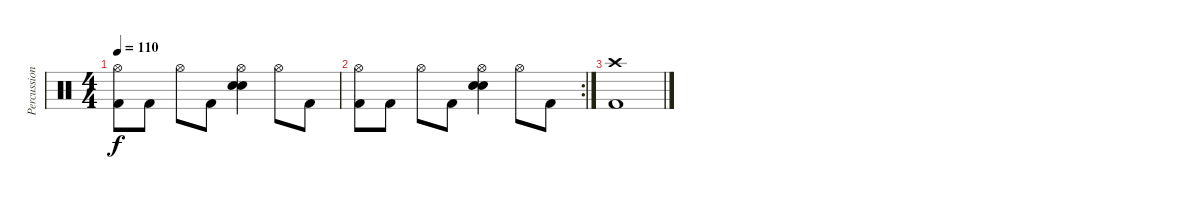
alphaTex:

\track ("Percussions" "Percussion") {instrument percussion}
\staff {score}
\articulation defaults
\ts (4 4)
\tempo 110
\clef neutral
\ks c
("Hi-Hat (open)" "Kick (hit) 2").8{dy f} "Kick (hit) 2".8 "Hi-Hat (open)".8 "Kick (hit) 2".8 ("Hand Clap (hit)" "Hi-Hat (open)" "Electric Snare (hit)").4 "Hi-Hat (open)".8 "Kick (hit) 2".8 |
\rc 2
("Hi-Hat (open)" "Kick (hit) 2").8 "Kick (hit) 2".8 "Hi-Hat (open)".8 "Kick (hit) 2".8 ("Hand Clap (hit)" "Hi-Hat (open)" "Electric Snare (hit)").4 "Hi-Hat (open)".8 "Kick (hit) 2".8 |
("Crash high (hit)" "Kick (hit) 2").1
